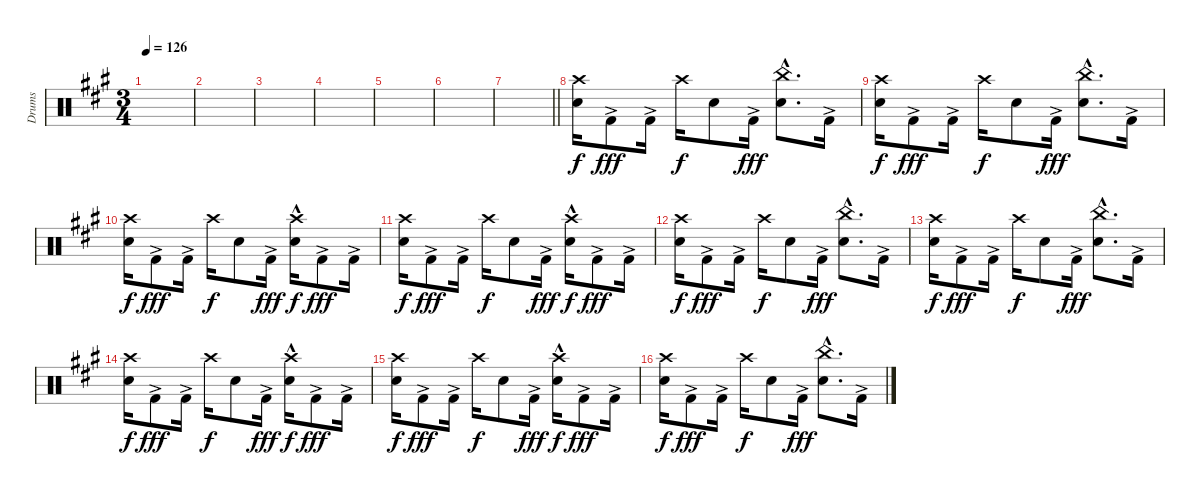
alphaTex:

\track ("Drums" "Drums") {instrument percussion}
\staff {score}
\articulation defaults
\ts (3 4)
\tempo 126
\clef neutral
\ks f#minor
|
|
|
|
|
|
\barLineRight lightlight
|
("Crash high (hit)" "Snare (hit) 2").16 "Kick (hit) 2"{ac}.8{dy fff} "Kick (hit) 2"{ac}.16 "Crash high (hit)".16{dy f} "Snare (hit) 2".8 "Kick (hit) 2"{ac}.16{dy fff} ("China (hit)"{hac} "Snare (hit) 2"{hac}).8{d} "Kick (hit) 2"{ac}.16 |
("Crash high (hit)" "Snare (hit) 2").16{dy f} "Kick (hit) 2"{ac}.8{dy fff} "Kick (hit) 2"{ac}.16 "Crash high (hit)".16{dy f} "Snare (hit) 2".8 "Kick (hit) 2"{ac}.16{dy fff} ("China (hit)"{hac} "Snare (hit) 2"{hac}).8{d} "Kick (hit) 2"{ac}.16 |
("Crash high (hit)" "Snare (hit) 2").16{dy f} "Kick (hit) 2"{ac}.8{dy fff} "Kick (hit) 2"{ac}.16 "Crash high (hit)".16{dy f} "Snare (hit) 2".8 "Kick (hit) 2"{ac}.16{dy fff} ("Crash high (hit)"{hac} "Snare (hit) 2").16{dy f} "Kick (hit) 2"{ac}.8{dy fff} "Kick (hit) 2"{ac}.16 |
("Crash high (hit)" "Snare (hit) 2").16{dy f} "Kick (hit) 2"{ac}.8{dy fff} "Kick (hit) 2"{ac}.16 "Crash high (hit)".16{dy f} "Snare (hit) 2".8 "Kick (hit) 2"{ac}.16{dy fff} ("Crash high (hit)"{hac} "Snare (hit) 2").16{dy f} "Kick (hit) 2"{ac}.8{dy fff} "Kick (hit) 2"{ac}.16 |
("Crash high (hit)" "Snare (hit) 2").16{dy f} "Kick (hit) 2"{ac}.8{dy fff} "Kick (hit) 2"{ac}.16 "Crash high (hit)".16{dy f} "Snare (hit) 2".8 "Kick (hit) 2"{ac}.16{dy fff} ("China (hit)"{hac} "Snare (hit) 2"{hac}).8{d} "Kick (hit) 2"{ac}.16 |
("Crash high (hit)" "Snare (hit) 2").16{dy f} "Kick (hit) 2"{ac}.8{dy fff} "Kick (hit) 2"{ac}.16 "Crash high (hit)".16{dy f} "Snare (hit) 2".8 "Kick (hit) 2"{ac}.16{dy fff} ("China (hit)"{hac} "Snare (hit) 2"{hac}).8{d} "Kick (hit) 2"{ac}.16 |
("Crash high (hit)" "Snare (hit) 2").16{dy f} "Kick (hit) 2"{ac}.8{dy fff} "Kick (hit) 2"{ac}.16 "Crash high (hit)".16{dy f} "Snare (hit) 2".8 "Kick (hit) 2"{ac}.16{dy fff} ("Crash high (hit)"{hac} "Snare (hit) 2").16{dy f} "Kick (hit) 2"{ac}.8{dy fff} "Kick (hit) 2"{ac}.16 |
("Crash high (hit)" "Snare (hit) 2").16{dy f} "Kick (hit) 2"{ac}.8{dy fff} "Kick (hit) 2"{ac}.16 "Crash high (hit)".16{dy f} "Snare (hit) 2".8 "Kick (hit) 2"{ac}.16{dy fff} ("Crash high (hit)"{hac} "Snare (hit) 2").16{dy f} "Kick (hit) 2"{ac}.8{dy fff} "Kick (hit) 2"{ac}.16 |
("Crash high (hit)" "Snare (hit) 2").16{dy f} "Kick (hit) 2"{ac}.8{dy fff} "Kick (hit) 2"{ac}.16 "Crash high (hit)".16{dy f} "Snare (hit) 2".8 "Kick (hit) 2"{ac}.16{dy fff} ("China (hit)"{hac} "Snare (hit) 2"{hac}).8{d} "Kick (hit) 2"{ac}.16
